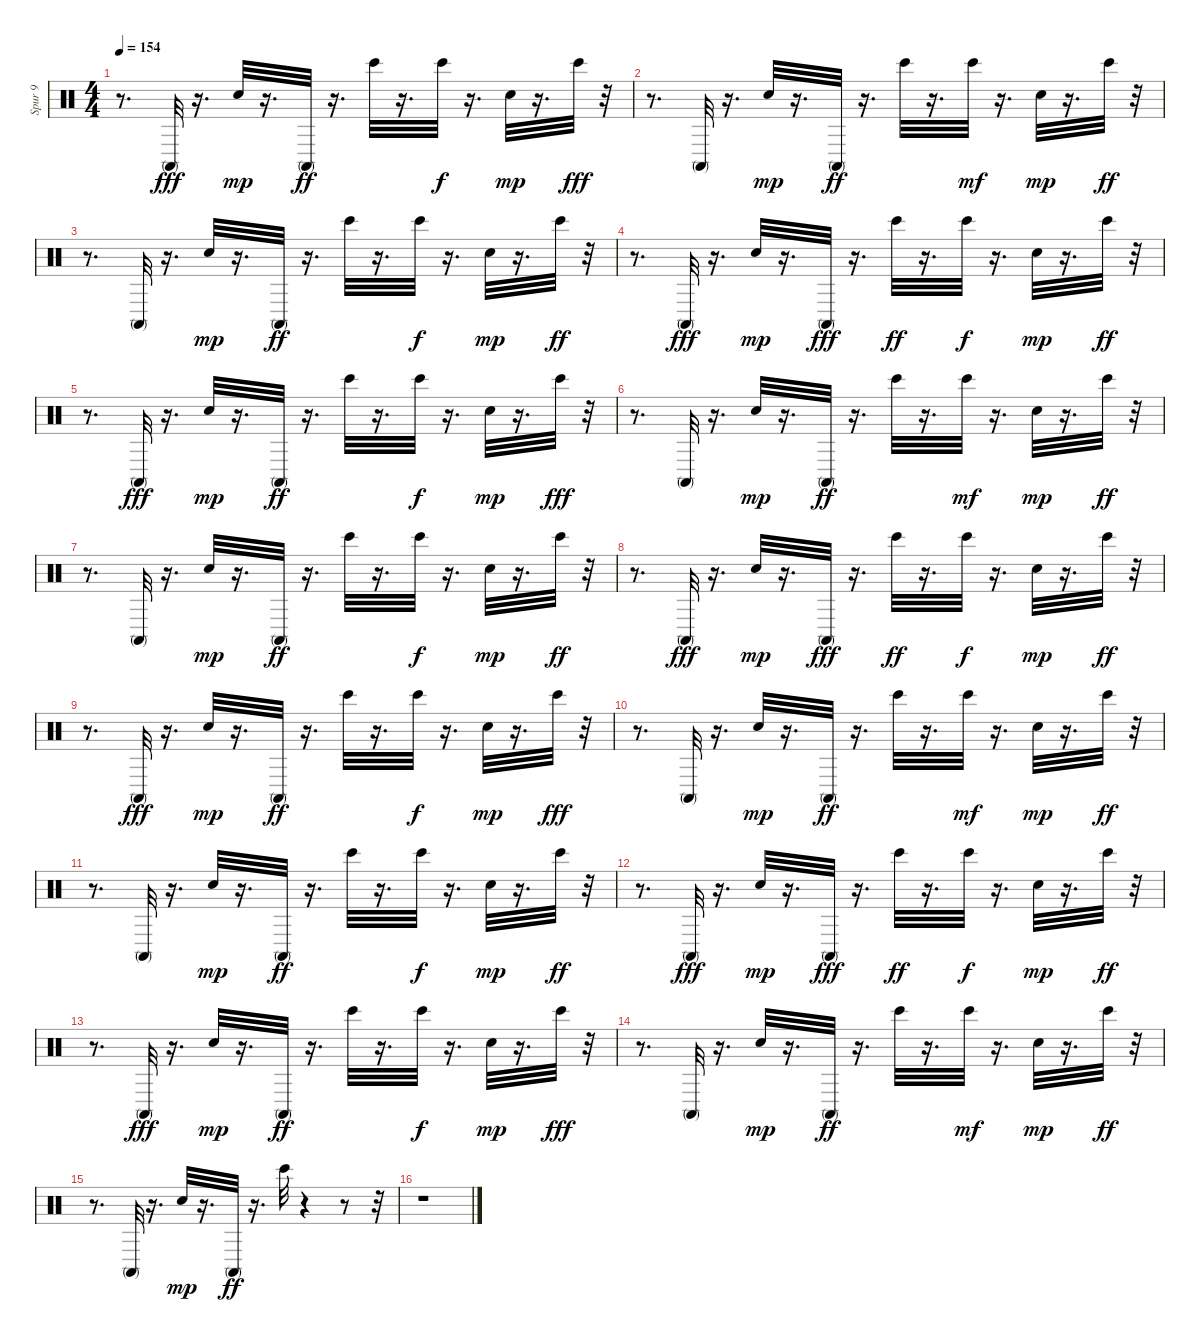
\track ("Spur 9" "Spur 9") {instrument percussion}
\staff {score}
\articulation defaults
\ts (4 4)
\tempo 154
\clef neutral
\ks c
r.8{d dy ff} "Conga high (mute)".32{dy fff} r.16{d} "Hand Clap (hit)".32{dy mp} r.16{d} "Conga high (mute)".32{dy ff} r.16{d} "Bongo High (hit)".32 r.16{d} "Bongo High (hit)".32{dy f} r.16{d} "Hand Clap (hit)".32{dy mp} r.16{d} "Bongo High (hit)".32{dy fff} r.32 |
r.8{d} "Conga high (mute)".32 r.16{d} "Hand Clap (hit)".32{dy mp} r.16{d} "Conga high (mute)".32{dy ff} r.16{d} "Bongo High (hit)".32 r.16{d} "Bongo High (hit)".32{dy mf} r.16{d} "Hand Clap (hit)".32{dy mp} r.16{d} "Bongo High (hit)".32{dy ff} r.32 |
r.8{d} "Conga high (mute)".32 r.16{d} "Hand Clap (hit)".32{dy mp} r.16{d} "Conga high (mute)".32{dy ff} r.16{d} "Bongo High (hit)".32 r.16{d} "Bongo High (hit)".32{dy f} r.16{d} "Hand Clap (hit)".32{dy mp} r.16{d} "Bongo High (hit)".32{dy ff} r.32 |
r.8{d} "Conga high (mute)".32{dy fff} r.16{d} "Hand Clap (hit)".32{dy mp} r.16{d} "Conga high (mute)".32{dy fff} r.16{d} "Bongo High (hit)".32{dy ff} r.16{d} "Bongo High (hit)".32{dy f} r.16{d} "Hand Clap (hit)".32{dy mp} r.16{d} "Bongo High (hit)".32{dy ff} r.32 |
r.8{d} "Conga high (mute)".32{dy fff} r.16{d} "Hand Clap (hit)".32{dy mp} r.16{d} "Conga high (mute)".32{dy ff} r.16{d} "Bongo High (hit)".32 r.16{d} "Bongo High (hit)".32{dy f} r.16{d} "Hand Clap (hit)".32{dy mp} r.16{d} "Bongo High (hit)".32{dy fff} r.32 |
r.8{d} "Conga high (mute)".32 r.16{d} "Hand Clap (hit)".32{dy mp} r.16{d} "Conga high (mute)".32{dy ff} r.16{d} "Bongo High (hit)".32 r.16{d} "Bongo High (hit)".32{dy mf} r.16{d} "Hand Clap (hit)".32{dy mp} r.16{d} "Bongo High (hit)".32{dy ff} r.32 |
r.8{d} "Conga high (mute)".32 r.16{d} "Hand Clap (hit)".32{dy mp} r.16{d} "Conga high (mute)".32{dy ff} r.16{d} "Bongo High (hit)".32 r.16{d} "Bongo High (hit)".32{dy f} r.16{d} "Hand Clap (hit)".32{dy mp} r.16{d} "Bongo High (hit)".32{dy ff} r.32 |
r.8{d} "Conga high (mute)".32{dy fff} r.16{d} "Hand Clap (hit)".32{dy mp} r.16{d} "Conga high (mute)".32{dy fff} r.16{d} "Bongo High (hit)".32{dy ff} r.16{d} "Bongo High (hit)".32{dy f} r.16{d} "Hand Clap (hit)".32{dy mp} r.16{d} "Bongo High (hit)".32{dy ff} r.32 |
r.8{d} "Conga high (mute)".32{dy fff} r.16{d} "Hand Clap (hit)".32{dy mp} r.16{d} "Conga high (mute)".32{dy ff} r.16{d} "Bongo High (hit)".32 r.16{d} "Bongo High (hit)".32{dy f} r.16{d} "Hand Clap (hit)".32{dy mp} r.16{d} "Bongo High (hit)".32{dy fff} r.32 |
r.8{d} "Conga high (mute)".32 r.16{d} "Hand Clap (hit)".32{dy mp} r.16{d} "Conga high (mute)".32{dy ff} r.16{d} "Bongo High (hit)".32 r.16{d} "Bongo High (hit)".32{dy mf} r.16{d} "Hand Clap (hit)".32{dy mp} r.16{d} "Bongo High (hit)".32{dy ff} r.32 |
r.8{d} "Conga high (mute)".32 r.16{d} "Hand Clap (hit)".32{dy mp} r.16{d} "Conga high (mute)".32{dy ff} r.16{d} "Bongo High (hit)".32 r.16{d} "Bongo High (hit)".32{dy f} r.16{d} "Hand Clap (hit)".32{dy mp} r.16{d} "Bongo High (hit)".32{dy ff} r.32 |
r.8{d} "Conga high (mute)".32{dy fff} r.16{d} "Hand Clap (hit)".32{dy mp} r.16{d} "Conga high (mute)".32{dy fff} r.16{d} "Bongo High (hit)".32{dy ff} r.16{d} "Bongo High (hit)".32{dy f} r.16{d} "Hand Clap (hit)".32{dy mp} r.16{d} "Bongo High (hit)".32{dy ff} r.32 |
r.8{d} "Conga high (mute)".32{dy fff} r.16{d} "Hand Clap (hit)".32{dy mp} r.16{d} "Conga high (mute)".32{dy ff} r.16{d} "Bongo High (hit)".32 r.16{d} "Bongo High (hit)".32{dy f} r.16{d} "Hand Clap (hit)".32{dy mp} r.16{d} "Bongo High (hit)".32{dy fff} r.32 |
r.8{d} "Conga high (mute)".32 r.16{d} "Hand Clap (hit)".32{dy mp} r.16{d} "Conga high (mute)".32{dy ff} r.16{d} "Bongo High (hit)".32 r.16{d} "Bongo High (hit)".32{dy mf} r.16{d} "Hand Clap (hit)".32{dy mp} r.16{d} "Bongo High (hit)".32{dy ff} r.32 |
r.8{d} "Conga high (mute)".32 r.16{d} "Hand Clap (hit)".32{dy mp} r.16{d} "Conga high (mute)".32{dy ff} r.16{d} "Bongo High (hit)".32 r.4 r.8 r.32 |
r.1
